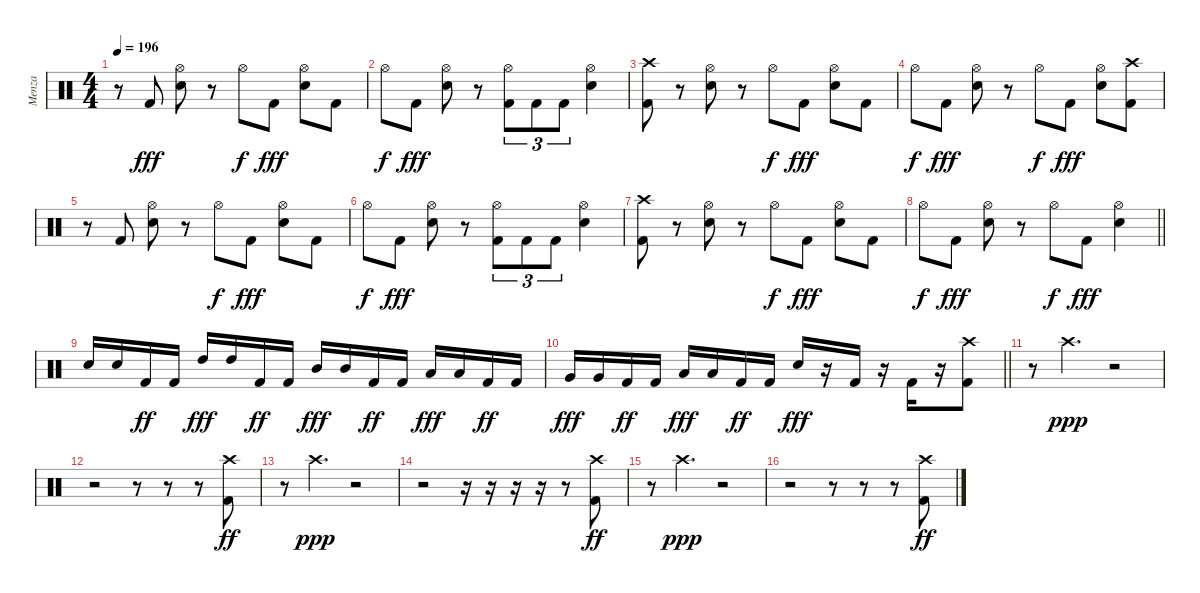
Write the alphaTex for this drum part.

\track ("Menza" "Menza") {instrument percussion}
\staff {score}
\articulation defaults
\ts (4 4)
\tempo 196
\clef neutral
\ks c
r.8{dy fff} "Kick (hit) 2".8 ("Hi-Hat (open)" "Snare (hit) 2").8 r.8 "Hi-Hat (open)".8{dy f} "Kick (hit) 2".8{dy fff} ("Hi-Hat (open)" "Snare (hit) 2").8 "Kick (hit) 2".8 |
"Hi-Hat (open)".8{dy f} "Kick (hit) 2".8{dy fff} ("Hi-Hat (open)" "Snare (hit) 2").8 r.8 ("Hi-Hat (open)" "Kick (hit) 2").8{tu (3 2)} "Kick (hit) 2".8{tu (3 2)} "Kick (hit) 2".8{tu (3 2)} ("Hi-Hat (open)" "Snare (hit) 2").4 |
("Crash high (hit)" "Kick (hit) 2").8 r.8 ("Hi-Hat (open)" "Snare (hit) 2").8 r.8 "Hi-Hat (open)".8{dy f} "Kick (hit) 2".8{dy fff} ("Hi-Hat (open)" "Snare (hit) 2").8 "Kick (hit) 2".8 |
"Hi-Hat (open)".8{dy f} "Kick (hit) 2".8{dy fff} ("Hi-Hat (open)" "Snare (hit) 2").8 r.8 "Hi-Hat (open)".8{dy f} "Kick (hit) 2".8{dy fff} ("Hi-Hat (open)" "Snare (hit) 2").8 ("Crash high (hit)" "Kick (hit) 2").8 |
r.8 "Kick (hit) 2".8 ("Hi-Hat (open)" "Snare (hit) 2").8 r.8 "Hi-Hat (open)".8{dy f} "Kick (hit) 2".8{dy fff} ("Hi-Hat (open)" "Snare (hit) 2").8 "Kick (hit) 2".8 |
"Hi-Hat (open)".8{dy f} "Kick (hit) 2".8{dy fff} ("Hi-Hat (open)" "Snare (hit) 2").8 r.8 ("Hi-Hat (open)" "Kick (hit) 2").8{tu (3 2)} "Kick (hit) 2".8{tu (3 2)} "Kick (hit) 2".8{tu (3 2)} ("Hi-Hat (open)" "Snare (hit) 2").4 |
("Crash high (hit)" "Kick (hit) 2").8 r.8 ("Hi-Hat (open)" "Snare (hit) 2").8 r.8 "Hi-Hat (open)".8{dy f} "Kick (hit) 2".8{dy fff} ("Hi-Hat (open)" "Snare (hit) 2").8 "Kick (hit) 2".8 |
\barLineRight lightlight "Hi-Hat (open)".8{dy f} "Kick (hit) 2".8{dy fff}
("Hi-Hat (open)" "Snare (hit) 2").8 r.8 "Hi-Hat (open)".8{dy f} "Kick (hit) 2".8{dy fff} ("Hi-Hat (open)" "Snare (hit) 2").4 |
"Snare (hit) 2".16 "Snare (hit) 2".16 "Kick (hit) 2".16{dy ff} "Kick (hit) 2".16 "High Tom (hit)".16{dy fff} "High Tom (hit)".16 "Kick (hit) 2".16{dy ff} "Kick (hit) 2".16 "Mid Tom (hit)".16{dy fff} "Mid Tom (hit)".16 "Kick (hit) 2".16{dy ff} "Kick (hit) 2".16 "Low Tom (hit)".16{dy fff} "Low Tom (hit)".16 "Kick (hit) 2".16{dy ff} "Kick (hit) 2".16 |
\barLineRight lightlight "Very Low Tom (hit)".16{dy fff} "Very Low Tom (hit)".16 "Kick (hit) 2".16{dy ff} "Kick (hit) 2".16 "Low Floor Tom (hit)".16{dy fff} "Low Floor Tom (hit)".16 "Kick (hit) 2".16{dy ff} "Kick (hit) 2".16 "Snare (hit) 2".16{dy fff}
r.16 "Kick (hit) 2".16 r.16 "Kick (hit) 2".16 r.16 ("Crash high (hit)" "Kick (hit) 2").8 |
r.8 "Crash high (hit)".4{d dy ppp} r.2 |
r.2 r.8 r.8 r.8 ("Crash high (hit)" "Kick (hit) 2").8{dy ff} |
r.8 "Crash high (hit)".4{d dy ppp} r.2 |
r.2 r.16 r.16 r.16 r.16 r.8 ("Crash high (hit)" "Kick (hit) 2").8{dy ff} |
r.8 "Crash high (hit)".4{d dy ppp} r.2 |
r.2 r.8 r.8 r.8 ("Crash high (hit)" "Kick (hit) 2").8{dy ff}
